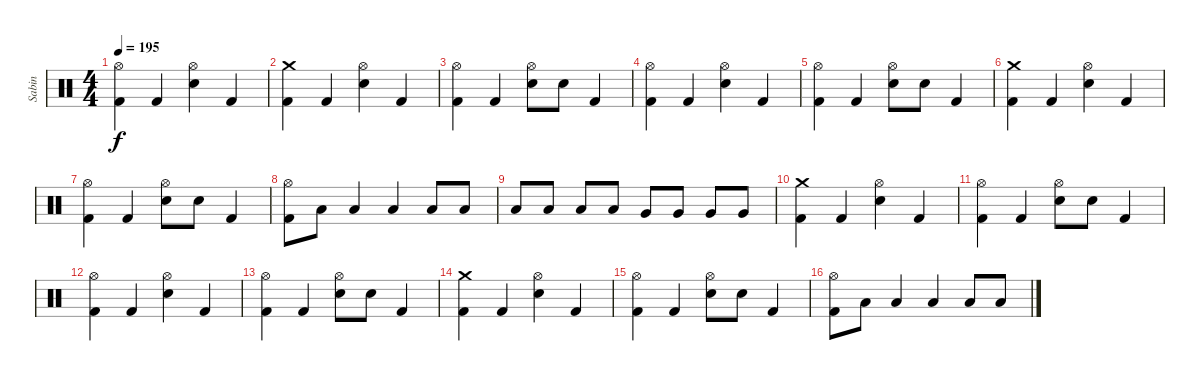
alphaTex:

\track ("Sabin" "Sabin") {instrument percussion}
\staff {score}
\articulation defaults
\ts (4 4)
\tempo 195
\clef neutral
\ks c
("Hi-Hat (open)" "Kick (hit) 2").4{dy f} "Kick (hit) 2".4 ("Electric Snare (hit)" "Hi-Hat (open)").4 "Kick (hit) 2".4 |
("Crash medium (hit)" "Kick (hit) 2").4 "Kick (hit) 2".4 ("Electric Snare (hit)" "Hi-Hat (open)").4 "Kick (hit) 2".4 |
("Hi-Hat (open)" "Kick (hit) 2").4 "Kick (hit) 2".4 ("Electric Snare (hit)" "Hi-Hat (open)").8 "Electric Snare (hit)".8 "Kick (hit) 2".4 |
("Hi-Hat (open)" "Kick (hit) 2").4 "Kick (hit) 2".4 ("Electric Snare (hit)" "Hi-Hat (open)").4 "Kick (hit) 2".4 |
("Hi-Hat (open)" "Kick (hit) 2").4 "Kick (hit) 2".4 ("Electric Snare (hit)" "Hi-Hat (open)").8 "Electric Snare (hit)".8 "Kick (hit) 2".4 |
("Crash medium (hit)" "Kick (hit) 2").4 "Kick (hit) 2".4 ("Electric Snare (hit)" "Hi-Hat (open)").4 "Kick (hit) 2".4 |
("Hi-Hat (open)" "Kick (hit) 2").4 "Kick (hit) 2".4 ("Electric Snare (hit)" "Hi-Hat (open)").8 "Electric Snare (hit)".8 "Kick (hit) 2".4 |
("Hi-Hat (open)" "Kick (hit) 2").8 "Low Tom (hit)".8 "Low Tom (hit)".4 "Low Tom (hit)".4 "Low Tom (hit)".8 "Low Tom (hit)".8 |
"Low Tom (hit)".8 "Low Tom (hit)".8 "Low Tom (hit)".8 "Low Tom (hit)".8 "Very Low Tom (hit)".8 "Very Low Tom (hit)".8 "Very Low Tom (hit)".8 "Very Low Tom (hit)".8 |
("Crash medium (hit)" "Kick (hit) 2").4 "Kick (hit) 2".4 ("Electric Snare (hit)" "Hi-Hat (open)").4 "Kick (hit) 2".4 |
("Hi-Hat (open)" "Kick (hit) 2").4 "Kick (hit) 2".4 ("Electric Snare (hit)" "Hi-Hat (open)").8 "Electric Snare (hit)".8 "Kick (hit) 2".4 |
("Hi-Hat (open)" "Kick (hit) 2").4 "Kick (hit) 2".4 ("Electric Snare (hit)" "Hi-Hat (open)").4 "Kick (hit) 2".4 |
("Hi-Hat (open)" "Kick (hit) 2").4 "Kick (hit) 2".4 ("Electric Snare (hit)" "Hi-Hat (open)").8 "Electric Snare (hit)".8 "Kick (hit) 2".4 |
("Crash medium (hit)" "Kick (hit) 2").4 "Kick (hit) 2".4 ("Electric Snare (hit)" "Hi-Hat (open)").4 "Kick (hit) 2".4 |
("Hi-Hat (open)" "Kick (hit) 2").4 "Kick (hit) 2".4 ("Electric Snare (hit)" "Hi-Hat (open)").8 "Electric Snare (hit)".8 "Kick (hit) 2".4 |
("Hi-Hat (open)" "Kick (hit) 2").8 "Low Tom (hit)".8 "Low Tom (hit)".4 "Low Tom (hit)".4 "Low Tom (hit)".8 "Low Tom (hit)".8
